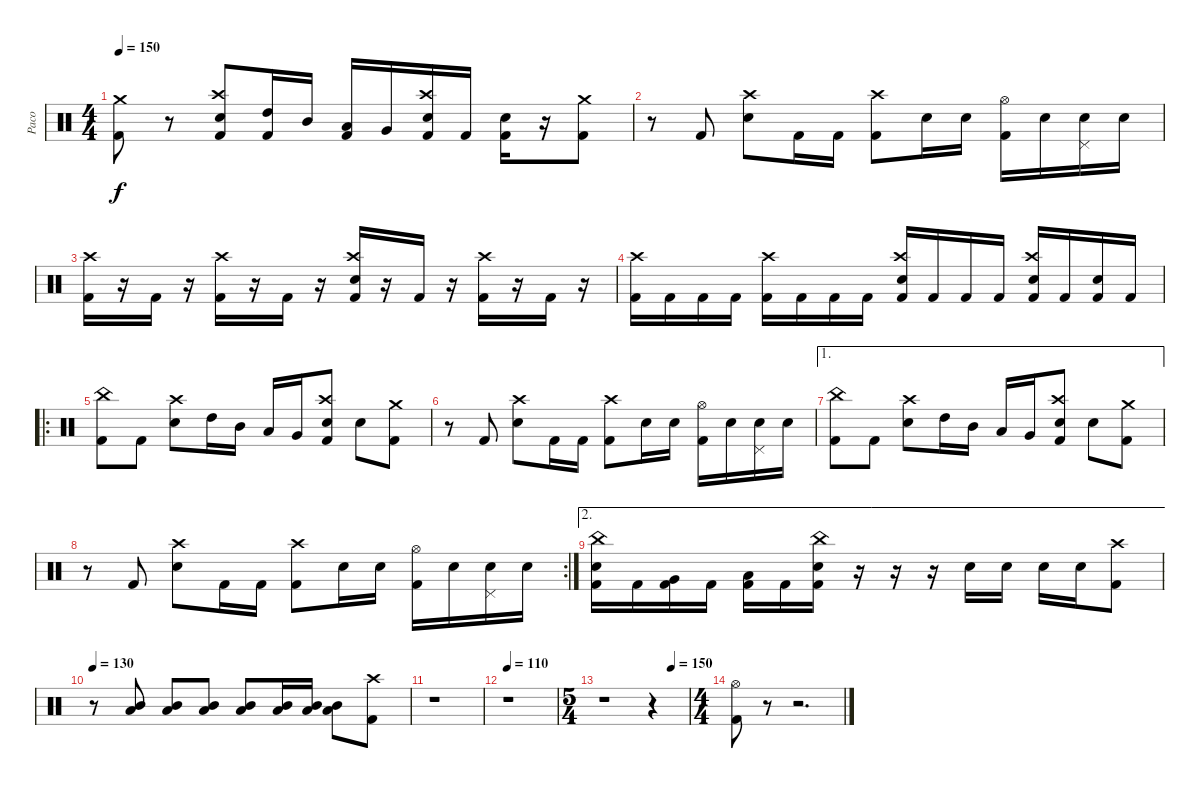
\track ("Paco" "Paco") {instrument percussion}
\staff {score}
\articulation defaults
\ts (4 4)
\tempo 150
\clef neutral
\ks c
("Crash medium (hit)" "Kick (hit) 2").8{dy f} r.8 ("Crash high (hit)" "Electric Snare (hit)" "Kick (hit) 2").8 ("High Tom (hit)" "Kick (hit) 2").16 "Mid Tom (hit)".16 ("Low Tom (hit)" "Kick (hit) 2").16 "Very Low Tom (hit)".16 ("Crash high (hit)" "Electric Snare (hit)" "Kick (hit) 2").16 "Kick (hit) 2".16 ("Electric Snare (hit)" "Kick (hit) 2").16 r.16 ("Crash medium (hit)" "Kick (hit) 2").8 |
r.8 "Kick (hit) 2".8 ("Crash high (hit)" "Electric Snare (hit)").8 "Kick (hit) 2".16 "Kick (hit) 2".16 ("Crash high (hit)" "Kick (hit) 2").8 "Electric Snare (hit)".16 "Electric Snare (hit)".16 ("Hi-Hat (open)" "Kick (hit) 2").16 "Electric Snare (hit)".16 ("Electric Snare (hit)" "Pedal Hi-Hat (hit)").16 "Electric Snare (hit)".16 |
("Crash high (hit)" "Kick (hit) 2").16 r.16 "Kick (hit) 2".16 r.16 ("Crash high (hit)" "Kick (hit) 2").16 r.16 "Kick (hit) 2".16 r.16 ("Crash high (hit)" "Electric Snare (hit)" "Kick (hit) 2").16 r.16 "Kick (hit) 2".16 r.16 ("Crash high (hit)" "Kick (hit) 2").16 r.16 "Kick (hit) 2".16 r.16 |
("Crash high (hit)" "Kick (hit) 2").16 "Kick (hit) 2".16 "Kick (hit) 2".16 "Kick (hit) 2".16 ("Crash high (hit)" "Kick (hit) 2").16 "Kick (hit) 2".16 "Kick (hit) 2".16 "Kick (hit) 2".16 ("Crash high (hit)" "Electric Snare (hit)" "Kick (hit) 2").16 "Kick (hit) 2".16 "Kick (hit) 2".16 "Kick (hit) 2".16 ("Crash high (hit)" "Electric Snare (hit)" "Kick (hit) 2").16 "Kick (hit) 2".16 ("Electric Snare (hit)" "Kick (hit) 2").16 "Kick (hit) 2".16 |
\ro
("China (hit)" "Kick (hit) 2").8 "Kick (hit) 2".8 ("Crash high (hit)" "Electric Snare (hit)").8 "High Tom (hit)".16 "Mid Tom (hit)".16 "Low Tom (hit)".16 "Very Low Tom (hit)".16 ("Crash high (hit)" "Electric Snare (hit)" "Kick (hit) 2").8 "Electric Snare (hit)".8 ("Crash medium (hit)" "Kick (hit) 2").8 |
r.8 "Kick (hit) 2".8 ("Crash high (hit)" "Electric Snare (hit)").8 "Kick (hit) 2".16 "Kick (hit) 2".16 ("Crash high (hit)" "Kick (hit) 2").8 "Electric Snare (hit)".16 "Electric Snare (hit)".16 ("Hi-Hat (open)" "Kick (hit) 2").16 "Electric Snare (hit)".16 ("Electric Snare (hit)" "Pedal Hi-Hat (hit)").16 "Electric Snare (hit)".16 |
\ae 1
("China (hit)" "Kick (hit) 2").8 "Kick (hit) 2".8 ("Crash high (hit)" "Electric Snare (hit)").8 "High Tom (hit)".16 "Mid Tom (hit)".16 "Low Tom (hit)".16 "Very Low Tom (hit)".16 ("Crash high (hit)" "Electric Snare (hit)" "Kick (hit) 2").8 "Electric Snare (hit)".8 ("Crash medium (hit)" "Kick (hit) 2").8 |
\rc 2
r.8 "Kick (hit) 2".8 ("Crash high (hit)" "Electric Snare (hit)").8 "Kick (hit) 2".16 "Kick (hit) 2".16 ("Crash high (hit)" "Kick (hit) 2").8 "Electric Snare (hit)".16 "Electric Snare (hit)".16 ("Hi-Hat (open)" "Kick (hit) 2").16 "Electric Snare (hit)".16 ("Electric Snare (hit)" "Pedal Hi-Hat (hit)").16 "Electric Snare (hit)".16 |
\ae 2
("China (hit)" "Electric Snare (hit)" "Kick (hit) 2").16 "Kick (hit) 2".16 ("Very Low Tom (hit)" "Kick (hit) 2").16 "Kick (hit) 2".16 ("Low Floor Tom (hit)" "Kick (hit) 2").16 "Kick (hit) 2".16 ("China (hit)" "Electric Snare (hit)" "Kick (hit) 2").16 r.16 r.16 r.16 "Electric Snare (hit)".16 "Electric Snare (hit)".16 "Electric Snare (hit)".16 "Electric Snare (hit)".16 ("Crash high (hit)" "Kick (hit) 2").8 |
\tempo 130
r.8 ("Mid Tom (hit)" "Low Tom (hit)").8 ("Mid Tom (hit)" "Low Tom (hit)").8 ("Mid Tom (hit)" "Low Tom (hit)").8 ("Mid Tom (hit)" "Low Tom (hit)").8 ("Mid Tom (hit)" "Low Tom (hit)").16 ("Mid Tom (hit)" "Low Tom (hit)").16 ("Mid Tom (hit)" "Low Tom (hit)").8 ("Crash high (hit)" "Kick (hit) 2").8 |
r.1 |
\tempo 110
r.1 |
\ts (5 4)
\tempo (150 0.8)
r.1 r.4 |
\ts (4 4)
("Hi-Hat (open)" "Kick (hit) 2").8 r.8 r.2{d}
